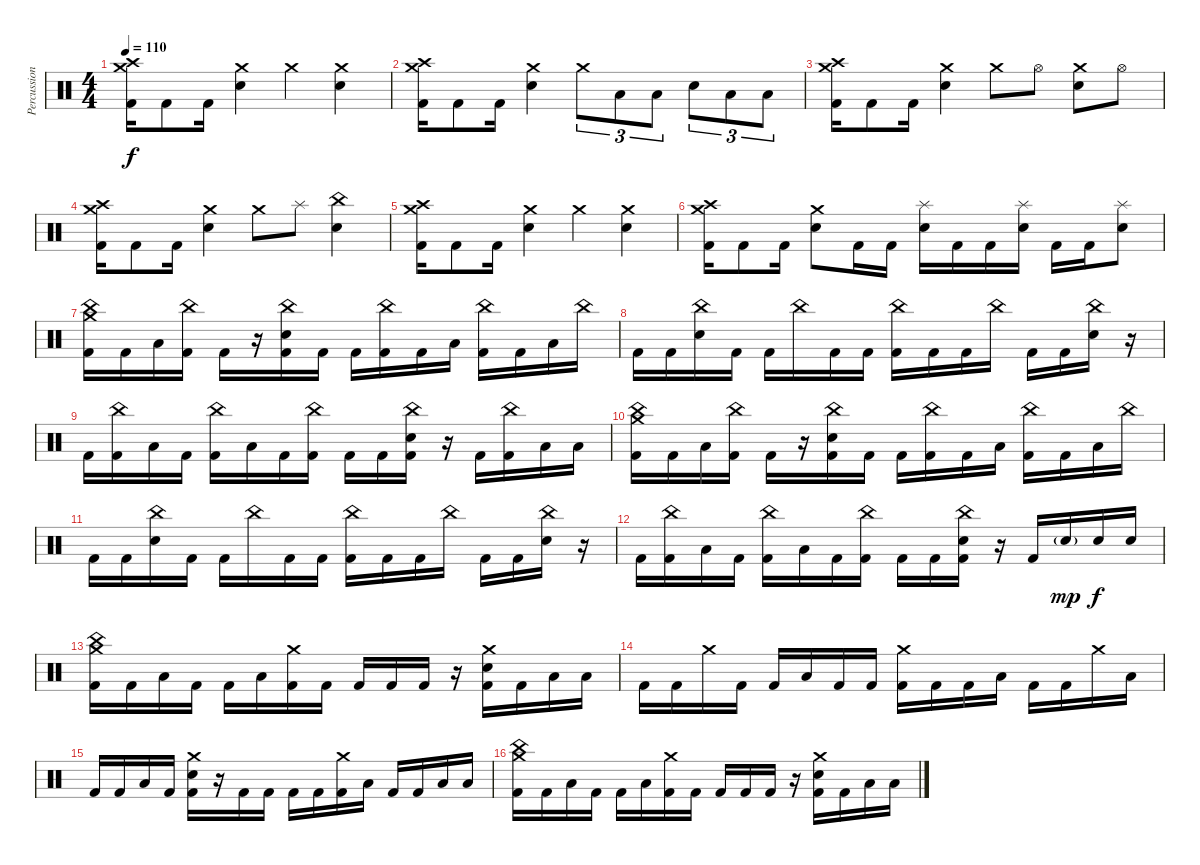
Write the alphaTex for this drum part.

\track ("Percussion" "Percussion") {instrument percussion}
\staff {score}
\articulation defaults
\ts (4 4)
\tempo 110
\clef neutral
\ks c
("Crash medium (hit)" "Crash high (hit)" "Kick (hit) 2").16{dy f} "Kick (hit) 2".8 "Kick (hit) 2".16 ("Crash medium (hit)" "Electric Snare (hit)").4 "Crash medium (hit)".4 ("Crash medium (hit)" "Electric Snare (hit)").4 |
("Crash medium (hit)" "Crash high (hit)" "Kick (hit) 2").16 "Kick (hit) 2".8 "Kick (hit) 2".16 ("Crash medium (hit)" "Electric Snare (hit)").4 "Crash medium (hit)".8{tu (3 2)} "Low Tom (hit)".8{tu (3 2)} "Low Tom (hit)".8{tu (3 2)} "Electric Snare (hit)".8{tu (3 2)} "Low Floor Tom (hit)".8{tu (3 2)} "Low Floor Tom (hit)".8{tu (3 2)} |
("Crash medium (hit)" "Crash high (hit)" "Kick (hit) 2").16 "Kick (hit) 2".8 "Kick (hit) 2".16 ("Crash medium (hit)" "Electric Snare (hit)").4 "Crash medium (hit)".8 "Hi-Hat (open)".8 ("Crash medium (hit)" "Electric Snare (hit)").8 "Hi-Hat (open)".8 |
("Crash medium (hit)" "Crash high (hit)" "Kick (hit) 2").16 "Kick (hit) 2".8 "Kick (hit) 2".16 ("Crash medium (hit)" "Electric Snare (hit)").4 "Crash medium (hit)".8 "Splash (hit)".8 ("China (hit)" "Electric Snare (hit)").4 |
("Crash medium (hit)" "Crash high (hit)" "Kick (hit) 2").16 "Kick (hit) 2".8 "Kick (hit) 2".16 ("Crash medium (hit)" "Electric Snare (hit)").4 "Crash medium (hit)".4 ("Crash medium (hit)" "Electric Snare (hit)").4 |
("Crash medium (hit)" "Crash high (hit)" "Kick (hit) 2").16 "Kick (hit) 2".8 "Kick (hit) 2".16 ("Crash medium (hit)" "Electric Snare (hit)").8 "Kick (hit) 2".16 "Kick (hit) 2".16 ("Splash (hit)" "Electric Snare (hit)").16 "Kick (hit) 2".16 "Kick (hit) 2".16 ("Splash (hit)" "Electric Snare (hit)").16 "Kick (hit) 2".16 "Kick (hit) 2".16 ("Splash (hit)" "Electric Snare (hit)").8 |
("Crash medium (hit)" "China (hit)" "Kick (hit) 2").16 "Kick (hit) 2".16 "Low Floor Tom (hit)".16 ("China (hit)" "Kick (hit) 2").16 "Kick (hit) 2".16 r.16 ("China (hit)" "Electric Snare (hit)" "Kick (hit) 2").16 "Kick (hit) 2".16 "Kick (hit) 2".16 ("China (hit)" "Kick (hit) 2").16 "Kick (hit) 2".16 "Low Floor Tom (hit)".16 ("China (hit)" "Kick (hit) 2").16 "Kick (hit) 2".16 "Low Floor Tom (hit)".16 "China (hit)".16 |
"Kick (hit) 2".16 "Kick (hit) 2".16 ("China (hit)" "Electric Snare (hit)").16 "Kick (hit) 2".16 "Kick (hit) 2".16 "China (hit)".16 "Kick (hit) 2".16 "Kick (hit) 2".16 ("China (hit)" "Kick (hit) 2").16 "Kick (hit) 2".16 "Kick (hit) 2".16 "China (hit)".16 "Kick (hit) 2".16 "Kick (hit) 2".16 ("China (hit)" "Electric Snare (hit)").16 r.16 |
"Kick (hit) 2".16 ("China (hit)" "Kick (hit) 2").16 "Low Floor Tom (hit)".16 "Kick (hit) 2".16 ("China (hit)" "Kick (hit) 2").16 "Low Floor Tom (hit)".16 "Kick (hit) 2".16 ("China (hit)" "Kick (hit) 2").16 "Kick (hit) 2".16 "Kick (hit) 2".16 ("China (hit)" "Electric Snare (hit)" "Kick (hit) 2").16 r.16 "Kick (hit) 2".16 ("China (hit)" "Kick (hit) 2").16 "Low Floor Tom (hit)".16 "Low Floor Tom (hit)".16 |
("Crash medium (hit)" "China (hit)" "Kick (hit) 2").16 "Kick (hit) 2".16 "Low Floor Tom (hit)".16 ("China (hit)" "Kick (hit) 2").16 "Kick (hit) 2".16 r.16 ("China (hit)" "Electric Snare (hit)" "Kick (hit) 2").16 "Kick (hit) 2".16 "Kick (hit) 2".16 ("China (hit)" "Kick (hit) 2").16 "Kick (hit) 2".16 "Low Floor Tom (hit)".16 ("China (hit)" "Kick (hit) 2").16 "Kick (hit) 2".16 "Low Floor Tom (hit)".16 "China (hit)".16 |
"Kick (hit) 2".16 "Kick (hit) 2".16 ("China (hit)" "Electric Snare (hit)").16 "Kick (hit) 2".16 "Kick (hit) 2".16 "China (hit)".16 "Kick (hit) 2".16 "Kick (hit) 2".16 ("China (hit)" "Kick (hit) 2").16 "Kick (hit) 2".16 "Kick (hit) 2".16 "China (hit)".16 "Kick (hit) 2".16 "Kick (hit) 2".16 ("China (hit)" "Electric Snare (hit)").16 r.16 |
"Kick (hit) 2".16 ("China (hit)" "Kick (hit) 2").16 "Low Floor Tom (hit)".16 "Kick (hit) 2".16 ("China (hit)" "Kick (hit) 2").16 "Low Floor Tom (hit)".16 "Kick (hit) 2".16 ("China (hit)" "Kick (hit) 2").16 "Kick (hit) 2".16 "Kick (hit) 2".16 ("China (hit)" "Electric Snare (hit)" "Kick (hit) 2").16 r.16 "Kick (hit) 2".16 "Electric Snare (hit)"{g}.16{dy mp} "Electric Snare (hit)".16{dy f} "Electric Snare (hit)".16 |
("Crash medium (hit)" "China (hit)" "Kick (hit) 2").16 "Kick (hit) 2".16 "Low Floor Tom (hit)".16 "Kick (hit) 2".16 "Kick (hit) 2".16 "Low Floor Tom (hit)".16 ("Crash medium (hit)" "Kick (hit) 2").16 "Kick (hit) 2".16 "Kick (hit) 2".16 "Kick (hit) 2".16 "Kick (hit) 2".16 r.16 ("Crash medium (hit)" "Electric Snare (hit)" "Kick (hit) 2").16 "Kick (hit) 2".16 "Low Floor Tom (hit)".16 "Low Floor Tom (hit)".16 |
"Kick (hit) 2".16 "Kick (hit) 2".16 "Crash medium (hit)".16 "Kick (hit) 2".16 "Kick (hit) 2".16 "Low Floor Tom (hit)".16 "Kick (hit) 2".16 "Kick (hit) 2".16 ("Crash medium (hit)" "Kick (hit) 2").16 "Kick (hit) 2".16 "Kick (hit) 2".16 "Low Floor Tom (hit)".16 "Kick (hit) 2".16 "Kick (hit) 2".16 "Crash medium (hit)".16 "Low Floor Tom (hit)".16 |
"Kick (hit) 2".16 "Kick (hit) 2".16 "Low Floor Tom (hit)".16 "Kick (hit) 2".16 ("Crash medium (hit)" "Electric Snare (hit)" "Kick (hit) 2").16 r.16 "Kick (hit) 2".16 "Kick (hit) 2".16 "Kick (hit) 2".16 "Kick (hit) 2".16 ("Crash medium (hit)" "Kick (hit) 2").16 "Low Floor Tom (hit)".16 "Kick (hit) 2".16 "Kick (hit) 2".16 "Low Floor Tom (hit)".16 "Low Floor Tom (hit)".16 |
("Crash medium (hit)" "China (hit)" "Kick (hit) 2").16 "Kick (hit) 2".16 "Low Floor Tom (hit)".16 "Kick (hit) 2".16 "Kick (hit) 2".16 "Low Floor Tom (hit)".16 ("Crash medium (hit)" "Kick (hit) 2").16 "Kick (hit) 2".16 "Kick (hit) 2".16 "Kick (hit) 2".16 "Kick (hit) 2".16 r.16 ("Crash medium (hit)" "Electric Snare (hit)" "Kick (hit) 2").16 "Kick (hit) 2".16 "Low Floor Tom (hit)".16 "Low Floor Tom (hit)".16
